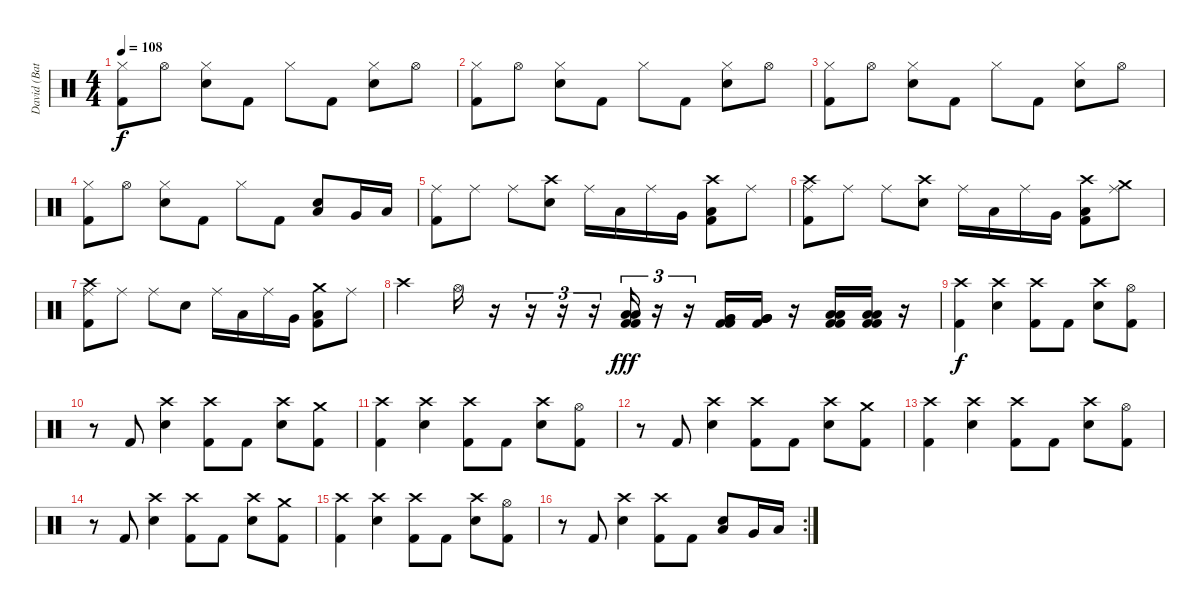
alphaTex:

\track ("David (Batterie)" "David (Bat") {instrument percussion}
\staff {score}
\articulation defaults
\ts (4 4)
\tempo 108
\clef neutral
\ks c
("Hi-Hat (closed)" "Kick (hit) 2").8{dy f} "Hi-Hat (open)".8 ("Hi-Hat (closed)" "Electric Snare (hit)").8 "Kick (hit) 2".8 "Hi-Hat (closed)".8 "Kick (hit) 2".8 ("Hi-Hat (closed)" "Electric Snare (hit)").8 "Hi-Hat (open)".8 |
("Hi-Hat (closed)" "Kick (hit) 2").8 "Hi-Hat (open)".8 ("Hi-Hat (closed)" "Electric Snare (hit)").8 "Kick (hit) 2".8 "Hi-Hat (closed)".8 "Kick (hit) 2".8 ("Hi-Hat (closed)" "Electric Snare (hit)").8 "Hi-Hat (open)".8 |
("Hi-Hat (closed)" "Kick (hit) 2").8 "Hi-Hat (open)".8 ("Hi-Hat (closed)" "Electric Snare (hit)").8 "Kick (hit) 2".8 "Hi-Hat (closed)".8 "Kick (hit) 2".8 ("Hi-Hat (closed)" "Electric Snare (hit)").8 "Hi-Hat (open)".8 |
("Hi-Hat (closed)" "Kick (hit) 2").8 "Hi-Hat (open)".8 ("Hi-Hat (closed)" "Electric Snare (hit)").8 "Kick (hit) 2".8 "Hi-Hat (closed)".8 "Kick (hit) 2".8 ("Low Tom (hit)" "Electric Snare (hit)").8 "Very Low Tom (hit)".16 "Low Floor Tom (hit)".16 |
("Ride (middle)" "Kick (hit) 2").8 "Ride (middle)".8 "Ride (middle)".8 ("Crash high (hit)" "Electric Snare (hit)").8 "Ride (middle)".16 "Low Tom (hit)".16 "Ride (middle)".16 "Very Low Tom (hit)".16 ("Crash high (hit)" "Low Floor Tom (hit)" "Kick (hit) 2").8 "Ride (middle)".8 |
("Crash high (hit)" "Ride (middle)" "Kick (hit) 2").8 "Ride (middle)".8 "Ride (middle)".8 ("Crash high (hit)" "Electric Snare (hit)").8 "Ride (middle)".16 "Low Tom (hit)".16 "Ride (middle)".16 "Very Low Tom (hit)".16 ("Crash high (hit)" "Low Floor Tom (hit)" "Kick (hit) 2").8 ("Crash medium (hit)" "Ride (middle)").8 |
("Crash high (hit)" "Ride (middle)" "Kick (hit) 2").8 "Ride (middle)".8 "Ride (middle)".8 "Electric Snare (hit)".8 "Ride (middle)".16 "Low Tom (hit)".16 "Ride (middle)".16 "Very Low Tom (hit)".16 ("Crash medium (hit)" "Low Floor Tom (hit)" "Kick (hit) 2").8 "Ride (middle)".8 |
"Crash high (hit)".4 "Hi-Hat (open)".16 r.16 r.16{tu (3 2)} r.16{tu (3 2)} r.16{tu (3 2)} ("Low Tom (hit)" "Low Tom (hit)" "Kick (hit) 2" "Kick (hit) 2").16{tu (3 2) dy fff} r.16{tu (3 2)} r.16{tu (3 2)} ("Very Low Tom (hit)" "Very Low Tom (hit)" "Kick (hit) 2" "Kick (hit) 2").16 ("Very Low Tom (hit)" "Very Low Tom (hit)" "Kick (hit) 2" "Very Low Tom (hit)").16 r.16 ("Low Floor Tom (hit)" "Low Floor Tom (hit)" "Kick (hit) 2" "Kick (hit) 2").16 ("Low Floor Tom (hit)" "Low Floor Tom (hit)" "Kick (hit) 2" "Kick (hit) 2").16 r.16 |
("Crash high (hit)" "Kick (hit) 2").4{dy f} ("Crash high (hit)" "Electric Snare (hit)").4 ("Crash high (hit)" "Kick (hit) 2").8 "Kick (hit) 2".8 ("Crash high (hit)" "Electric Snare (hit)").8 ("Hi-Hat (open)" "Kick (hit) 2").8 |
r.8 "Kick (hit) 2".8 ("Crash high (hit)" "Electric Snare (hit)").4 ("Crash high (hit)" "Kick (hit) 2").8 "Kick (hit) 2".8 ("Crash high (hit)" "Electric Snare (hit)").8 ("Crash medium (hit)" "Kick (hit) 2").8 |
("Crash high (hit)" "Kick (hit) 2").4 ("Crash high (hit)" "Electric Snare (hit)").4 ("Crash high (hit)" "Kick (hit) 2").8 "Kick (hit) 2".8 ("Crash high (hit)" "Electric Snare (hit)").8 ("Hi-Hat (open)" "Kick (hit) 2").8 |
r.8 "Kick (hit) 2".8 ("Crash high (hit)" "Electric Snare (hit)").4 ("Crash high (hit)" "Kick (hit) 2").8 "Kick (hit) 2".8 ("Crash high (hit)" "Electric Snare (hit)").8 ("Crash medium (hit)" "Kick (hit) 2").8 |
("Crash high (hit)" "Kick (hit) 2").4 ("Crash high (hit)" "Electric Snare (hit)").4 ("Crash high (hit)" "Kick (hit) 2").8 "Kick (hit) 2".8 ("Crash high (hit)" "Electric Snare (hit)").8 ("Hi-Hat (open)" "Kick (hit) 2").8 |
r.8 "Kick (hit) 2".8 ("Crash high (hit)" "Electric Snare (hit)").4 ("Crash high (hit)" "Kick (hit) 2").8 "Kick (hit) 2".8 ("Crash high (hit)" "Electric Snare (hit)").8 ("Crash medium (hit)" "Kick (hit) 2").8 |
("Crash high (hit)" "Kick (hit) 2").4 ("Crash high (hit)" "Electric Snare (hit)").4 ("Crash high (hit)" "Kick (hit) 2").8 "Kick (hit) 2".8 ("Crash high (hit)" "Electric Snare (hit)").8 ("Hi-Hat (open)" "Kick (hit) 2").8 |
\rc 2
r.8 "Kick (hit) 2".8 ("Crash high (hit)" "Electric Snare (hit)").4 ("Crash high (hit)" "Kick (hit) 2").8 "Kick (hit) 2".8 ("Low Tom (hit)" "Electric Snare (hit)").8 "Very Low Tom (hit)".16 "Low Floor Tom (hit)".16
